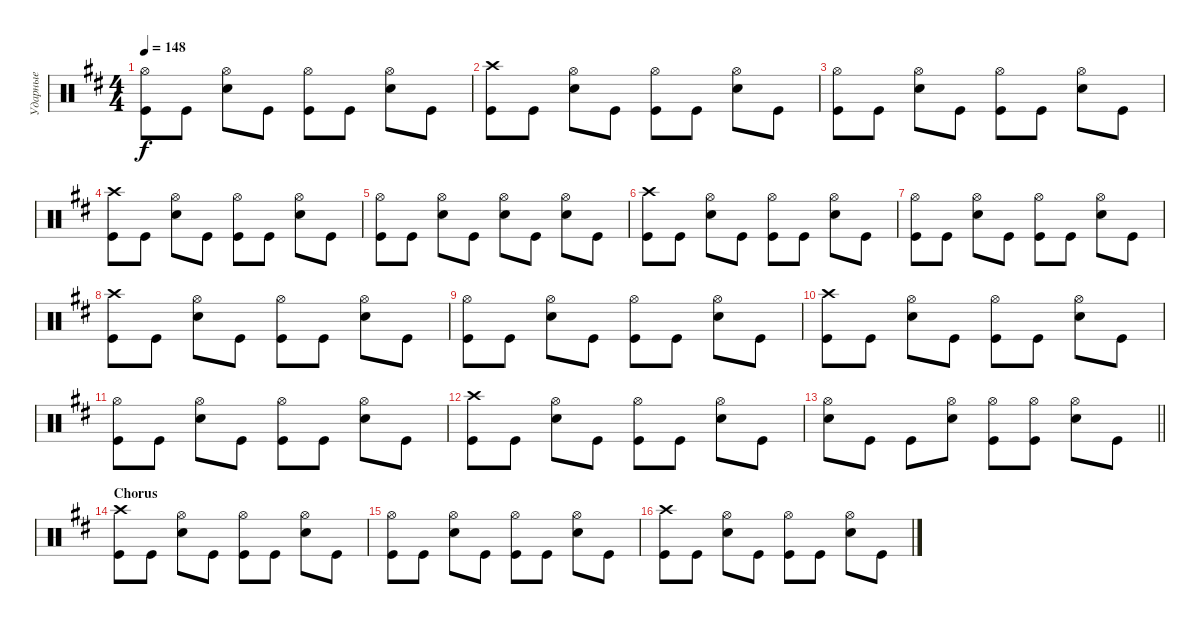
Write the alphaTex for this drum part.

\track ("Ударные" "Ударные") {instrument percussion}
\staff {score}
\articulation defaults
\ts (4 4)
\tempo 148
\clef neutral
\ks bminor
("Hi-Hat (open)" "Kick (hit)").8{dy f} "Kick (hit)".8 ("Snare (hit) 2" "Hi-Hat (open)").8 "Kick (hit)".8 ("Kick (hit)" "Hi-Hat (open)").8 "Kick (hit)".8 ("Snare (hit) 2" "Hi-Hat (open)").8 "Kick (hit)".8 |
("Crash high (hit)" "Kick (hit)").8 "Kick (hit)".8 ("Snare (hit) 2" "Hi-Hat (open)").8 "Kick (hit)".8 ("Kick (hit)" "Hi-Hat (open)").8 "Kick (hit)".8 ("Snare (hit) 2" "Hi-Hat (open)").8 "Kick (hit)".8 |
("Hi-Hat (open)" "Kick (hit)").8 "Kick (hit)".8 ("Snare (hit) 2" "Hi-Hat (open)").8 "Kick (hit)".8 ("Kick (hit)" "Hi-Hat (open)").8 "Kick (hit)".8 ("Snare (hit) 2" "Hi-Hat (open)").8 "Kick (hit)".8 |
("Crash high (hit)" "Kick (hit)").8 "Kick (hit)".8 ("Snare (hit) 2" "Hi-Hat (open)").8 "Kick (hit)".8 ("Kick (hit)" "Hi-Hat (open)").8 "Kick (hit)".8 ("Snare (hit) 2" "Hi-Hat (open)").8 "Kick (hit)".8 |
("Hi-Hat (open)" "Kick (hit)").8 "Kick (hit)".8 ("Snare (hit) 2" "Hi-Hat (open)").8 "Kick (hit)".8 ("Snare (hit) 2" "Hi-Hat (open)").8 "Kick (hit)".8 ("Snare (hit) 2" "Hi-Hat (open)").8 "Kick (hit)".8 |
("Crash high (hit)" "Kick (hit)").8 "Kick (hit)".8 ("Snare (hit) 2" "Hi-Hat (open)").8 "Kick (hit)".8 ("Kick (hit)" "Hi-Hat (open)").8 "Kick (hit)".8 ("Snare (hit) 2" "Hi-Hat (open)").8 "Kick (hit)".8 |
("Hi-Hat (open)" "Kick (hit)").8 "Kick (hit)".8 ("Snare (hit) 2" "Hi-Hat (open)").8 "Kick (hit)".8 ("Kick (hit)" "Hi-Hat (open)").8 "Kick (hit)".8 ("Snare (hit) 2" "Hi-Hat (open)").8 "Kick (hit)".8 |
("Crash high (hit)" "Kick (hit)").8 "Kick (hit)".8 ("Snare (hit) 2" "Hi-Hat (open)").8 "Kick (hit)".8 ("Kick (hit)" "Hi-Hat (open)").8 "Kick (hit)".8 ("Snare (hit) 2" "Hi-Hat (open)").8 "Kick (hit)".8 |
("Hi-Hat (open)" "Kick (hit)").8 "Kick (hit)".8 ("Snare (hit) 2" "Hi-Hat (open)").8 "Kick (hit)".8 ("Kick (hit)" "Hi-Hat (open)").8 "Kick (hit)".8 ("Snare (hit) 2" "Hi-Hat (open)").8 "Kick (hit)".8 |
("Crash high (hit)" "Kick (hit)").8 "Kick (hit)".8 ("Snare (hit) 2" "Hi-Hat (open)").8 "Kick (hit)".8 ("Kick (hit)" "Hi-Hat (open)").8 "Kick (hit)".8 ("Snare (hit) 2" "Hi-Hat (open)").8 "Kick (hit)".8 |
("Hi-Hat (open)" "Kick (hit)").8 "Kick (hit)".8 ("Snare (hit) 2" "Hi-Hat (open)").8 "Kick (hit)".8 ("Kick (hit)" "Hi-Hat (open)").8 "Kick (hit)".8 ("Snare (hit) 2" "Hi-Hat (open)").8 "Kick (hit)".8 |
("Crash high (hit)" "Kick (hit)").8 "Kick (hit)".8 ("Snare (hit) 2" "Hi-Hat (open)").8 "Kick (hit)".8 ("Kick (hit)" "Hi-Hat (open)").8 "Kick (hit)".8 ("Snare (hit) 2" "Hi-Hat (open)").8 "Kick (hit)".8 |
\barLineRight lightlight
("Snare (hit) 2" "Hi-Hat (open)").8 "Kick (hit)".8 "Kick (hit)".8 ("Snare (hit) 2" "Hi-Hat (open)").8 ("Kick (hit)" "Hi-Hat (open)").8 ("Kick (hit)" "Hi-Hat (open)").8 ("Snare (hit) 2" "Hi-Hat (open)").8 "Kick (hit)".8 |
\section ("" "Chorus")
("Crash high (hit)" "Kick (hit)").8 "Kick (hit)".8 ("Snare (hit) 2" "Hi-Hat (open)").8 "Kick (hit)".8 ("Kick (hit)" "Hi-Hat (open)").8 "Kick (hit)".8 ("Snare (hit) 2" "Hi-Hat (open)").8 "Kick (hit)".8 |
("Hi-Hat (open)" "Kick (hit)").8 "Kick (hit)".8 ("Snare (hit) 2" "Hi-Hat (open)").8 "Kick (hit)".8 ("Kick (hit)" "Hi-Hat (open)").8 "Kick (hit)".8 ("Snare (hit) 2" "Hi-Hat (open)").8 "Kick (hit)".8 |
("Crash high (hit)" "Kick (hit)").8 "Kick (hit)".8 ("Snare (hit) 2" "Hi-Hat (open)").8 "Kick (hit)".8 ("Kick (hit)" "Hi-Hat (open)").8 "Kick (hit)".8 ("Snare (hit) 2" "Hi-Hat (open)").8 "Kick (hit)".8
